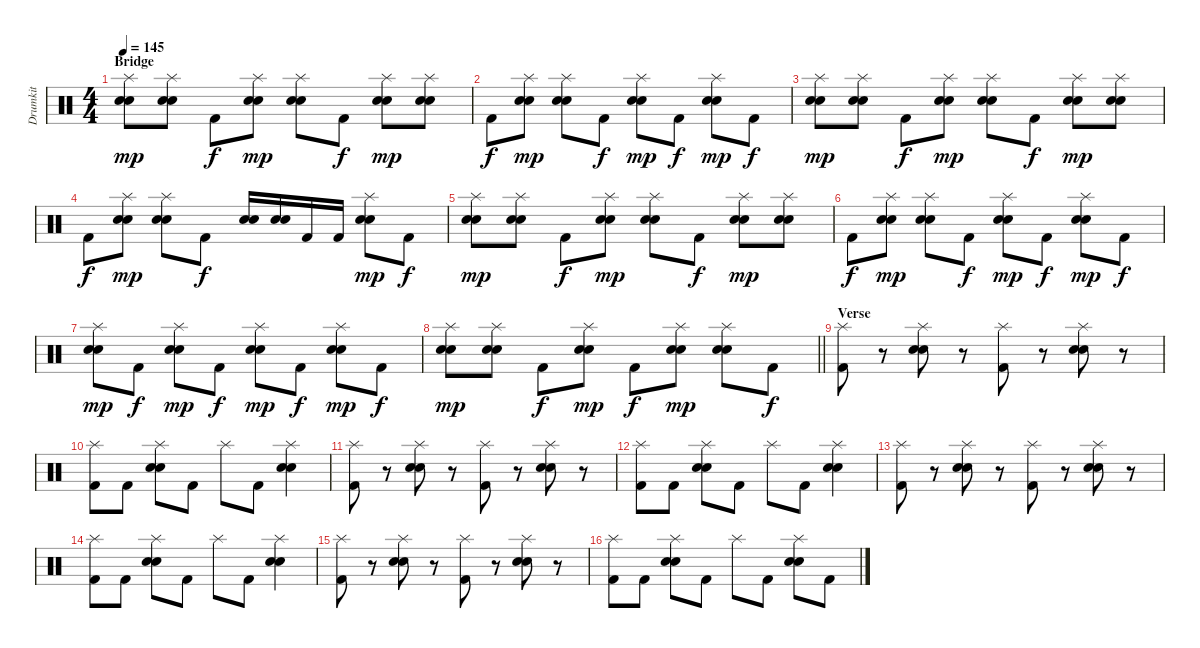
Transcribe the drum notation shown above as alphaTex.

\track ("Drumkit" "Drumkit") {instrument percussion}
\staff {score}
\articulation defaults
\ts (4 4)
\section ("" "Bridge")
\tempo 145
\clef neutral
\ks c
("Splash (hit)" "Electric Snare (hit)" "Snare (hit) 2").8{dy mp} ("Splash (hit)" "Electric Snare (hit)" "Snare (hit) 2").8 "Kick (hit) 2".8{dy f} ("Splash (hit)" "Electric Snare (hit)" "Snare (hit) 2").8{dy mp} ("Splash (hit)" "Electric Snare (hit)" "Snare (hit) 2").8 "Kick (hit) 2".8{dy f} ("Splash (hit)" "Electric Snare (hit)" "Snare (hit) 2").8{dy mp} ("Splash (hit)" "Electric Snare (hit)" "Snare (hit) 2").8 |
"Kick (hit) 2".8{dy f} ("Splash (hit)" "Electric Snare (hit)" "Snare (hit) 2").8{dy mp} ("Splash (hit)" "Electric Snare (hit)" "Snare (hit) 2").8 "Kick (hit) 2".8{dy f} ("Splash (hit)" "Electric Snare (hit)" "Snare (hit) 2").8{dy mp} "Kick (hit) 2".8{dy f} ("Splash (hit)" "Electric Snare (hit)" "Snare (hit) 2").8{dy mp} "Kick (hit) 2".8{dy f} |
("Splash (hit)" "Electric Snare (hit)" "Snare (hit) 2").8{dy mp} ("Splash (hit)" "Electric Snare (hit)" "Snare (hit) 2").8 "Kick (hit) 2".8{dy f} ("Splash (hit)" "Electric Snare (hit)" "Snare (hit) 2").8{dy mp} ("Splash (hit)" "Electric Snare (hit)" "Snare (hit) 2").8 "Kick (hit) 2".8{dy f} ("Splash (hit)" "Electric Snare (hit)" "Snare (hit) 2").8{dy mp} ("Splash (hit)" "Electric Snare (hit)" "Snare (hit) 2").8 |
"Kick (hit) 2".8{dy f} ("Splash (hit)" "Electric Snare (hit)" "Snare (hit) 2").8{dy mp} ("Splash (hit)" "Electric Snare (hit)" "Snare (hit) 2").8 "Kick (hit) 2".8{dy f} ("Electric Snare (hit)" "Snare (hit) 2").16 ("Electric Snare (hit)" "Snare (hit) 2").16 "Kick (hit) 2".16 "Kick (hit) 2".16 ("Splash (hit)" "Electric Snare (hit)" "Snare (hit) 2").8{dy mp} "Kick (hit) 2".8{dy f} |
("Splash (hit)" "Electric Snare (hit)" "Snare (hit) 2").8{dy mp} ("Splash (hit)" "Electric Snare (hit)" "Snare (hit) 2").8 "Kick (hit) 2".8{dy f} ("Splash (hit)" "Electric Snare (hit)" "Snare (hit) 2").8{dy mp} ("Splash (hit)" "Electric Snare (hit)" "Snare (hit) 2").8 "Kick (hit) 2".8{dy f} ("Splash (hit)" "Electric Snare (hit)" "Snare (hit) 2").8{dy mp} ("Splash (hit)" "Electric Snare (hit)" "Snare (hit) 2").8 |
"Kick (hit) 2".8{dy f} ("Splash (hit)" "Electric Snare (hit)" "Snare (hit) 2").8{dy mp} ("Splash (hit)" "Electric Snare (hit)" "Snare (hit) 2").8 "Kick (hit) 2".8{dy f} ("Splash (hit)" "Electric Snare (hit)" "Snare (hit) 2").8{dy mp} "Kick (hit) 2".8{dy f} ("Splash (hit)" "Electric Snare (hit)" "Snare (hit) 2").8{dy mp} "Kick (hit) 2".8{dy f} |
("Splash (hit)" "Electric Snare (hit)" "Snare (hit) 2").8{dy mp} "Kick (hit) 2".8{dy f} ("Splash (hit)" "Electric Snare (hit)" "Snare (hit) 2").8{dy mp} "Kick (hit) 2".8{dy f} ("Splash (hit)" "Electric Snare (hit)" "Snare (hit) 2").8{dy mp} "Kick (hit) 2".8{dy f} ("Splash (hit)" "Electric Snare (hit)" "Snare (hit) 2").8{dy mp} "Kick (hit) 2".8{dy f} |
\barLineRight lightlight
("Splash (hit)" "Electric Snare (hit)" "Snare (hit) 2").8{dy mp} ("Splash (hit)" "Electric Snare (hit)" "Snare (hit) 2").8 "Kick (hit) 2".8{dy f} ("Splash (hit)" "Electric Snare (hit)" "Snare (hit) 2").8{dy mp} "Kick (hit) 2".8{dy f} ("Splash (hit)" "Electric Snare (hit)" "Snare (hit) 2").8{dy mp} ("Splash (hit)" "Electric Snare (hit)" "Snare (hit) 2").8 "Kick (hit) 2".8{dy f} |
\section ("" "Verse")
("Splash (hit)" "Kick (hit) 2").8 r.8 ("Splash (hit)" "Electric Snare (hit)" "Snare (hit) 2").8 r.8 ("Splash (hit)" "Kick (hit) 2").8 r.8 ("Splash (hit)" "Electric Snare (hit)" "Snare (hit) 2").8 r.8 |
("Splash (hit)" "Kick (hit) 2").8 "Kick (hit) 2".8 ("Splash (hit)" "Electric Snare (hit)" "Snare (hit) 2").8 "Kick (hit) 2".8 "Splash (hit)".8 "Kick (hit) 2".8 ("Splash (hit)" "Electric Snare (hit)" "Snare (hit) 2").4 |
("Splash (hit)" "Kick (hit) 2").8 r.8 ("Splash (hit)" "Electric Snare (hit)" "Snare (hit) 2").8 r.8 ("Splash (hit)" "Kick (hit) 2").8 r.8 ("Splash (hit)" "Electric Snare (hit)" "Snare (hit) 2").8 r.8 |
("Splash (hit)" "Kick (hit) 2").8 "Kick (hit) 2".8 ("Splash (hit)" "Electric Snare (hit)" "Snare (hit) 2").8 "Kick (hit) 2".8 "Splash (hit)".8 "Kick (hit) 2".8 ("Splash (hit)" "Electric Snare (hit)" "Snare (hit) 2").4 |
("Splash (hit)" "Kick (hit) 2").8 r.8 ("Splash (hit)" "Electric Snare (hit)" "Snare (hit) 2").8 r.8 ("Splash (hit)" "Kick (hit) 2").8 r.8 ("Splash (hit)" "Electric Snare (hit)" "Snare (hit) 2").8 r.8 |
("Splash (hit)" "Kick (hit) 2").8 "Kick (hit) 2".8 ("Splash (hit)" "Electric Snare (hit)" "Snare (hit) 2").8 "Kick (hit) 2".8 "Splash (hit)".8 "Kick (hit) 2".8 ("Splash (hit)" "Electric Snare (hit)" "Snare (hit) 2").4 |
("Splash (hit)" "Kick (hit) 2").8 r.8 ("Splash (hit)" "Electric Snare (hit)" "Snare (hit) 2").8 r.8 ("Splash (hit)" "Kick (hit) 2").8 r.8 ("Splash (hit)" "Electric Snare (hit)" "Snare (hit) 2").8 r.8 |
("Splash (hit)" "Kick (hit) 2").8 "Kick (hit) 2".8 ("Splash (hit)" "Electric Snare (hit)" "Snare (hit) 2").8 "Kick (hit) 2".8 "Splash (hit)".8 "Kick (hit) 2".8 ("Splash (hit)" "Electric Snare (hit)" "Snare (hit) 2").8 "Kick (hit) 2".8
